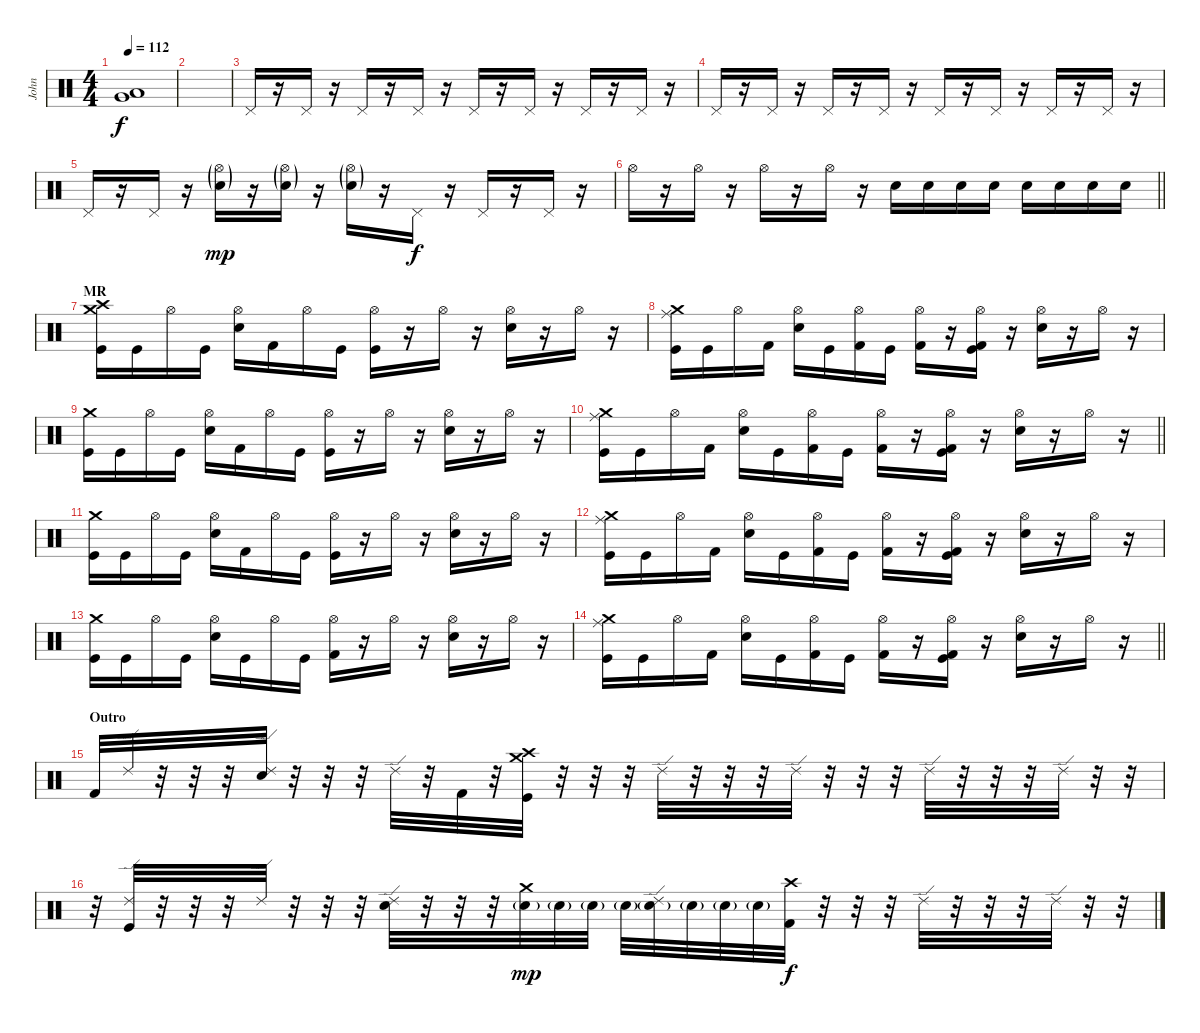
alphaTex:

\track ("John" "John") {instrument percussion}
\staff {score}
\articulation defaults
\ts (4 4)
\tempo 112
\clef neutral
\ks c
("Very Low Tom (hit)" "Low Tom (hit)").1{dy f} |
|
"Pedal Hi-Hat (hit)".16 r.16 "Pedal Hi-Hat (hit)".16 r.16 "Pedal Hi-Hat (hit)".16 r.16 "Pedal Hi-Hat (hit)".16 r.16 "Pedal Hi-Hat (hit)".16 r.16 "Pedal Hi-Hat (hit)".16 r.16 "Pedal Hi-Hat (hit)".16 r.16 "Pedal Hi-Hat (hit)".16 r.16 |
"Pedal Hi-Hat (hit)".16 r.16 "Pedal Hi-Hat (hit)".16 r.16 "Pedal Hi-Hat (hit)".16 r.16 "Pedal Hi-Hat (hit)".16 r.16 "Pedal Hi-Hat (hit)".16 r.16 "Pedal Hi-Hat (hit)".16 r.16 "Pedal Hi-Hat (hit)".16 r.16 "Pedal Hi-Hat (hit)".16 r.16 |
"Pedal Hi-Hat (hit)".16 r.16 "Pedal Hi-Hat (hit)".16 r.16 ("Hi-Hat (open)"{g} "Electric Snare (hit)"{g}).16{dy mp} r.16 ("Hi-Hat (open)"{g} "Electric Snare (hit)"{g}).16 r.16 ("Hi-Hat (open)"{g} "Electric Snare (hit)"{g}).16 r.16 "Pedal Hi-Hat (hit)".16{dy f} r.16 "Pedal Hi-Hat (hit)".16 r.16 "Pedal Hi-Hat (hit)".16 r.16 |
\barLineRight lightlight "Hi-Hat (open)".16
r.16 "Hi-Hat (open)".16 r.16 "Hi-Hat (open)".16 r.16 "Hi-Hat (open)".16 r.16 "Electric Snare (hit)".16 "Electric Snare (hit)".16 "Electric Snare (hit)".16 "Electric Snare (hit)".16 "Electric Snare (hit)".16 "Electric Snare (hit)".16 "Electric Snare (hit)".16 "Electric Snare (hit)".16 |
\section ("" "MR")
("Crash medium (hit)" "Crash high (hit)" "Kick (hit)").16 "Kick (hit)".16 "Hi-Hat (open)".16 "Kick (hit)".16 ("Hi-Hat (open)" "Electric Snare (hit)").16 "Kick (hit) 2".16 "Hi-Hat (open)".16 "Kick (hit)".16 ("Hi-Hat (open)" "Kick (hit)").16 r.16 "Hi-Hat (open)".16 r.16 ("Hi-Hat (open)" "Electric Snare (hit)").16 r.16 "Hi-Hat (open)".16 r.16 |
("Crash medium (hit)" "Ride (middle)" "Kick (hit)").16 "Kick (hit)".16 "Hi-Hat (open)".16 "Kick (hit) 2".16 ("Hi-Hat (open)" "Electric Snare (hit)").16 "Kick (hit)".16 ("Hi-Hat (open)" "Kick (hit) 2").16 "Kick (hit)".16 ("Hi-Hat (open)" "Kick (hit) 2").16 r.16 ("Hi-Hat (open)" "Kick (hit)" "Kick (hit) 2").16 r.16 ("Hi-Hat (open)" "Electric Snare (hit)").16 r.16 "Hi-Hat (open)".16 r.16 |
("Crash medium (hit)" "Kick (hit)").16 "Kick (hit)".16 "Hi-Hat (open)".16 "Kick (hit)".16 ("Hi-Hat (open)" "Electric Snare (hit)").16 "Kick (hit) 2".16 "Hi-Hat (open)".16 "Kick (hit)".16 ("Hi-Hat (open)" "Kick (hit)").16 r.16 "Hi-Hat (open)".16 r.16 ("Hi-Hat (open)" "Electric Snare (hit)").16 r.16 "Hi-Hat (open)".16 r.16 |
\barLineRight lightlight
("Crash medium (hit)" "Ride (middle)" "Kick (hit)").16 "Kick (hit)".16 "Hi-Hat (open)".16 "Kick (hit) 2".16 ("Hi-Hat (open)" "Electric Snare (hit)").16 "Kick (hit)".16 ("Hi-Hat (open)" "Kick (hit) 2").16 "Kick (hit)".16 ("Hi-Hat (open)" "Kick (hit) 2").16 r.16 ("Hi-Hat (open)" "Kick (hit)" "Kick (hit) 2").16 r.16 ("Hi-Hat (open)" "Electric Snare (hit)").16 r.16 "Hi-Hat (open)".16 r.16 |
("Crash medium (hit)" "Kick (hit)").16 "Kick (hit)".16 "Hi-Hat (open)".16 "Kick (hit)".16 ("Hi-Hat (open)" "Electric Snare (hit)").16 "Kick (hit) 2".16 "Hi-Hat (open)".16 "Kick (hit)".16 ("Hi-Hat (open)" "Kick (hit)").16 r.16 "Hi-Hat (open)".16 r.16 ("Hi-Hat (open)" "Electric Snare (hit)").16 r.16 "Hi-Hat (open)".16 r.16 |
("Crash medium (hit)" "Ride (middle)" "Kick (hit)").16 "Kick (hit)".16 "Hi-Hat (open)".16 "Kick (hit) 2".16 ("Hi-Hat (open)" "Electric Snare (hit)").16 "Kick (hit)".16 ("Hi-Hat (open)" "Kick (hit) 2").16 "Kick (hit)".16 ("Hi-Hat (open)" "Kick (hit) 2").16 r.16 ("Hi-Hat (open)" "Kick (hit)" "Kick (hit) 2").16 r.16 ("Hi-Hat (open)" "Electric Snare (hit)").16 r.16 "Hi-Hat (open)".16 r.16 |
("Crash medium (hit)" "Kick (hit)").16 "Kick (hit)".16 "Hi-Hat (open)".16 "Kick (hit)".16 ("Hi-Hat (open)" "Electric Snare (hit)").16 "Kick (hit)".16 "Hi-Hat (open)".16 "Kick (hit)".16 ("Hi-Hat (open)" "Kick (hit) 2").16 r.16 "Hi-Hat (open)".16 r.16 ("Hi-Hat (open)" "Electric Snare (hit)").16 r.16 "Hi-Hat (open)".16 r.16 |
\barLineRight lightlight
("Crash medium (hit)" "Ride (middle)" "Kick (hit)").16 "Kick (hit)".16 "Hi-Hat (open)".16 "Kick (hit) 2".16 ("Hi-Hat (open)" "Electric Snare (hit)").16 "Kick (hit)".16 ("Hi-Hat (open)" "Kick (hit) 2").16 "Kick (hit)".16 ("Hi-Hat (open)" "Kick (hit) 2").16 r.16 ("Hi-Hat (open)" "Kick (hit)" "Kick (hit) 2").16 r.16 ("Hi-Hat (open)" "Electric Snare (hit)").16 r.16 "Hi-Hat (open)".16 r.16 |
\section ("" "Outro")
"Kick (hit) 2".32 "Ride (edge) 2".32 r.32 r.32 r.32 ("Ride (edge) 2" "Electric Snare (hit)").32 r.32 r.32 r.32 "Ride (edge) 2".32 r.32 "Kick (hit) 2".32 r.32 ("Crash medium (hit)" "Crash high (hit)" "Kick (hit)").32 r.32 r.32 r.32 "Ride (edge) 2".32 r.32 r.32 r.32 "Ride (edge) 2".32 r.32 r.32 r.32 "Ride (edge) 2".32 r.32 r.32 r.32 "Ride (edge) 2".32 r.32 r.32 |
r.32 ("Ride (edge) 2" "Kick (hit)").32 r.32 r.32 r.32 "Ride (edge) 2".32 r.32 r.32 r.32 ("Ride (edge) 2" "Electric Snare (hit)").32 r.32 r.32 r.32 ("Crash medium (hit)" "Electric Snare (hit)"{g}).32{dy mp} "Electric Snare (hit)"{g}.32 "Electric Snare (hit)"{g}.32 "Electric Snare (hit)"{g}.32 ("Ride (edge) 2" "Electric Snare (hit)"{g}).32 "Electric Snare (hit)"{g}.32 "Electric Snare (hit)"{g}.32 "Electric Snare (hit)"{g}.32 ("Crash high (hit)" "Kick (hit) 2").32{dy f} r.32 r.32 r.32 "Ride (edge) 2".32 r.32 r.32 r.32 "Ride (edge) 2".32 r.32 r.32
